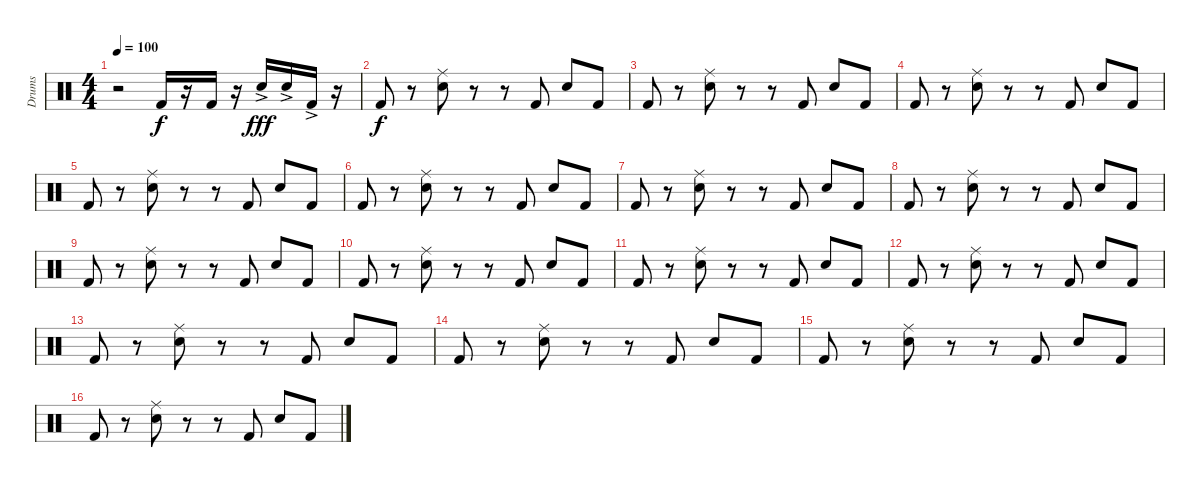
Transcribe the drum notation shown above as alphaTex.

\track ("Drums" "Drums") {instrument percussion}
\staff {score}
\articulation defaults
\ts (4 4)
\tempo 100
\clef neutral
\ks c
r.2{dy f} "Kick (hit) 2".16 r.16 "Kick (hit) 2".16 r.16 "Snare (hit) 2"{ac}.16{dy fff} "Snare (hit) 2"{ac}.16 "Kick (hit) 2"{ac}.16 r.16 |
"Kick (hit) 2".8{dy f} r.8 ("Ride (middle)" "Snare (hit) 2").8 r.8 r.8 "Kick (hit) 2".8 "Snare (hit) 2".8 "Kick (hit) 2".8 |
"Kick (hit) 2".8 r.8 ("Ride (middle)" "Snare (hit) 2").8 r.8 r.8 "Kick (hit) 2".8 "Snare (hit) 2".8 "Kick (hit) 2".8 |
"Kick (hit) 2".8 r.8 ("Ride (middle)" "Snare (hit) 2").8 r.8 r.8 "Kick (hit) 2".8 "Snare (hit) 2".8 "Kick (hit) 2".8 |
"Kick (hit) 2".8 r.8 ("Ride (middle)" "Snare (hit) 2").8 r.8 r.8 "Kick (hit) 2".8 "Snare (hit) 2".8 "Kick (hit) 2".8 |
"Kick (hit) 2".8 r.8 ("Ride (middle)" "Snare (hit) 2").8 r.8 r.8 "Kick (hit) 2".8 "Snare (hit) 2".8 "Kick (hit) 2".8 |
"Kick (hit) 2".8 r.8 ("Ride (middle)" "Snare (hit) 2").8 r.8 r.8 "Kick (hit) 2".8 "Snare (hit) 2".8 "Kick (hit) 2".8 |
"Kick (hit) 2".8 r.8 ("Ride (middle)" "Snare (hit) 2").8 r.8 r.8 "Kick (hit) 2".8 "Snare (hit) 2".8 "Kick (hit) 2".8 |
"Kick (hit) 2".8 r.8 ("Ride (middle)" "Snare (hit) 2").8 r.8 r.8 "Kick (hit) 2".8 "Snare (hit) 2".8 "Kick (hit) 2".8 |
"Kick (hit) 2".8 r.8 ("Ride (middle)" "Snare (hit) 2").8 r.8 r.8 "Kick (hit) 2".8 "Snare (hit) 2".8 "Kick (hit) 2".8 |
"Kick (hit) 2".8 r.8 ("Ride (middle)" "Snare (hit) 2").8 r.8 r.8 "Kick (hit) 2".8 "Snare (hit) 2".8 "Kick (hit) 2".8 |
"Kick (hit) 2".8 r.8 ("Ride (middle)" "Snare (hit) 2").8 r.8 r.8 "Kick (hit) 2".8 "Snare (hit) 2".8 "Kick (hit) 2".8 |
"Kick (hit) 2".8 r.8 ("Ride (middle)" "Snare (hit) 2").8 r.8 r.8 "Kick (hit) 2".8 "Snare (hit) 2".8 "Kick (hit) 2".8 |
"Kick (hit) 2".8 r.8 ("Ride (middle)" "Snare (hit) 2").8 r.8 r.8 "Kick (hit) 2".8 "Snare (hit) 2".8 "Kick (hit) 2".8 |
"Kick (hit) 2".8 r.8 ("Ride (middle)" "Snare (hit) 2").8 r.8 r.8 "Kick (hit) 2".8 "Snare (hit) 2".8 "Kick (hit) 2".8 |
"Kick (hit) 2".8 r.8 ("Ride (middle)" "Snare (hit) 2").8 r.8 r.8 "Kick (hit) 2".8 "Snare (hit) 2".8 "Kick (hit) 2".8
